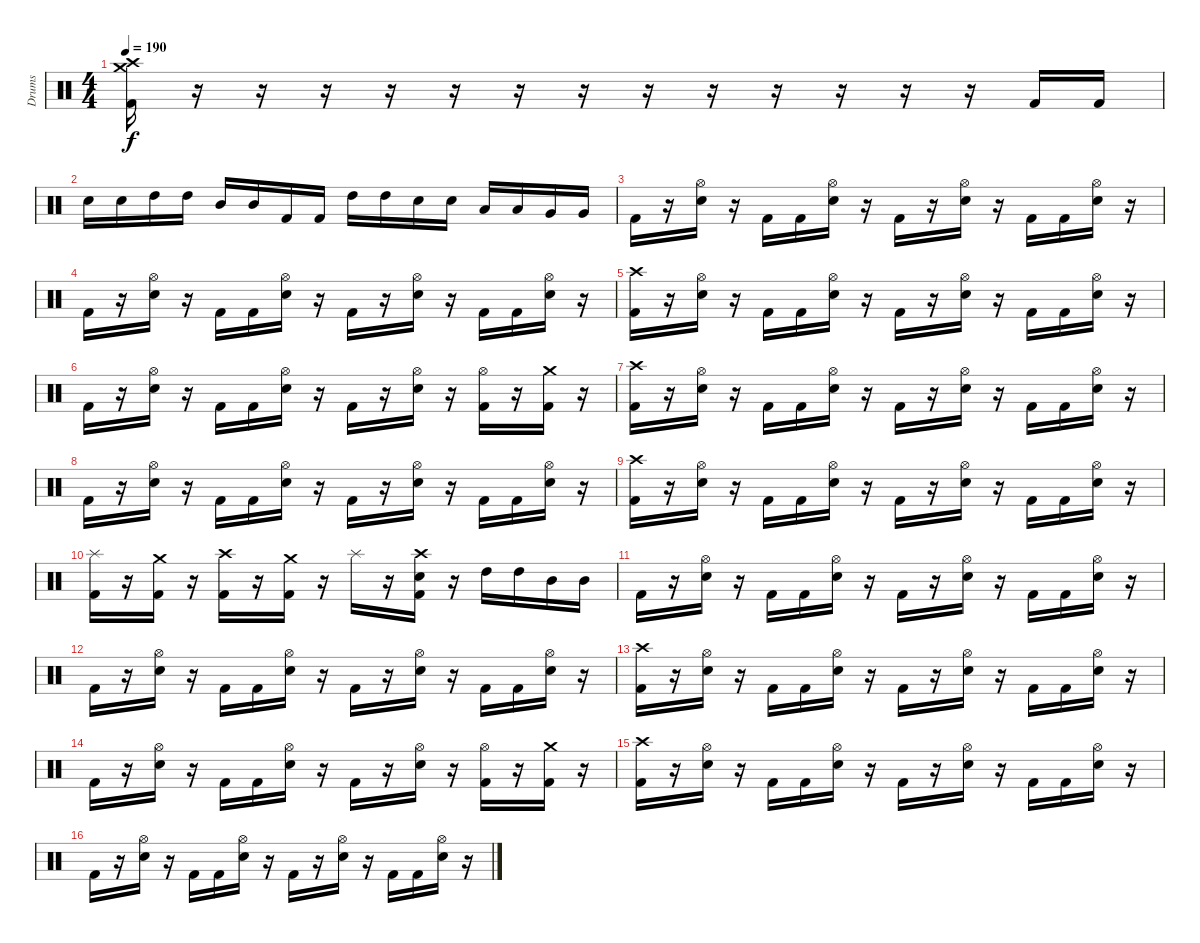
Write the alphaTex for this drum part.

\track ("Drums" "Drums") {instrument percussion}
\staff {score}
\articulation defaults
\ts (4 4)
\tempo 190
\clef neutral
\ks c
("Crash high (hit)" "Crash medium (hit)" "Kick (hit) 2").16{dy f} r.16 r.16 r.16 r.16 r.16 r.16 r.16 r.16 r.16 r.16 r.16 r.16 r.16 "Kick (hit) 2".16 "Kick (hit) 2".16 |
"Electric Snare (hit)".16 "Electric Snare (hit)".16 "High Tom (hit)".16 "High Tom (hit)".16 "Mid Tom (hit)".16 "Mid Tom (hit)".16 "Kick (hit) 2".16 "Kick (hit) 2".16 "High Tom (hit)".16 "High Tom (hit)".16 "Electric Snare (hit)".16 "Electric Snare (hit)".16 "Low Tom (hit)".16 "Low Tom (hit)".16 "Very Low Tom (hit)".16 "Very Low Tom (hit)".16 |
"Kick (hit) 2".16 r.16 ("Hi-Hat (open)" "Electric Snare (hit)").16 r.16 "Kick (hit) 2".16 "Kick (hit) 2".16 ("Hi-Hat (open)" "Electric Snare (hit)").16 r.16 "Kick (hit) 2".16 r.16 ("Hi-Hat (open)" "Electric Snare (hit)").16 r.16 "Kick (hit) 2".16 "Kick (hit) 2".16 ("Hi-Hat (open)" "Electric Snare (hit)").16 r.16 |
"Kick (hit) 2".16 r.16 ("Hi-Hat (open)" "Electric Snare (hit)").16 r.16 "Kick (hit) 2".16 "Kick (hit) 2".16 ("Hi-Hat (open)" "Electric Snare (hit)").16 r.16 "Kick (hit) 2".16 r.16 ("Hi-Hat (open)" "Electric Snare (hit)").16 r.16 "Kick (hit) 2".16 "Kick (hit) 2".16 ("Hi-Hat (open)" "Electric Snare (hit)").16 r.16 |
("Crash high (hit)" "Kick (hit) 2").16 r.16 ("Hi-Hat (open)" "Electric Snare (hit)").16 r.16 "Kick (hit) 2".16 "Kick (hit) 2".16 ("Hi-Hat (open)" "Electric Snare (hit)").16 r.16 "Kick (hit) 2".16 r.16 ("Hi-Hat (open)" "Electric Snare (hit)").16 r.16 "Kick (hit) 2".16 "Kick (hit) 2".16 ("Hi-Hat (open)" "Electric Snare (hit)").16 r.16 |
"Kick (hit) 2".16 r.16 ("Hi-Hat (open)" "Electric Snare (hit)").16 r.16 "Kick (hit) 2".16 "Kick (hit) 2".16 ("Hi-Hat (open)" "Electric Snare (hit)").16 r.16 "Kick (hit) 2".16 r.16 ("Hi-Hat (open)" "Electric Snare (hit)").16 r.16 ("Hi-Hat (open)" "Kick (hit) 2").16 r.16 ("Crash medium (hit)" "Kick (hit) 2").16 r.16 |
("Crash high (hit)" "Kick (hit) 2").16 r.16 ("Hi-Hat (open)" "Electric Snare (hit)").16 r.16 "Kick (hit) 2".16 "Kick (hit) 2".16 ("Hi-Hat (open)" "Electric Snare (hit)").16 r.16 "Kick (hit) 2".16 r.16 ("Hi-Hat (open)" "Electric Snare (hit)").16 r.16 "Kick (hit) 2".16 "Kick (hit) 2".16 ("Hi-Hat (open)" "Electric Snare (hit)").16 r.16 |
"Kick (hit) 2".16 r.16 ("Hi-Hat (open)" "Electric Snare (hit)").16 r.16 "Kick (hit) 2".16 "Kick (hit) 2".16 ("Hi-Hat (open)" "Electric Snare (hit)").16 r.16 "Kick (hit) 2".16 r.16 ("Hi-Hat (open)" "Electric Snare (hit)").16 r.16 "Kick (hit) 2".16 "Kick (hit) 2".16 ("Hi-Hat (open)" "Electric Snare (hit)").16 r.16 |
("Crash high (hit)" "Kick (hit) 2").16 r.16 ("Hi-Hat (open)" "Electric Snare (hit)").16 r.16 "Kick (hit) 2".16 "Kick (hit) 2".16 ("Hi-Hat (open)" "Electric Snare (hit)").16 r.16 "Kick (hit) 2".16 r.16 ("Hi-Hat (open)" "Electric Snare (hit)").16 r.16 "Kick (hit) 2".16 "Kick (hit) 2".16 ("Hi-Hat (open)" "Electric Snare (hit)").16 r.16 |
("Splash (hit)" "Kick (hit) 2").16 r.16 ("Crash medium (hit)" "Kick (hit) 2").16 r.16 ("Crash high (hit)" "Kick (hit) 2").16 r.16 ("Crash medium (hit)" "Kick (hit) 2").16 r.16 "Splash (hit)".16 r.16 ("Crash high (hit)" "Electric Snare (hit)" "Kick (hit) 2").16 r.16 "High Tom (hit)".16 "High Tom (hit)".16 "Mid Tom (hit)".16 "Mid Tom (hit)".16 |
"Kick (hit) 2".16 r.16 ("Hi-Hat (open)" "Electric Snare (hit)").16 r.16 "Kick (hit) 2".16 "Kick (hit) 2".16 ("Hi-Hat (open)" "Electric Snare (hit)").16 r.16 "Kick (hit) 2".16 r.16 ("Hi-Hat (open)" "Electric Snare (hit)").16 r.16 "Kick (hit) 2".16 "Kick (hit) 2".16 ("Hi-Hat (open)" "Electric Snare (hit)").16 r.16 |
"Kick (hit) 2".16 r.16 ("Hi-Hat (open)" "Electric Snare (hit)").16 r.16 "Kick (hit) 2".16 "Kick (hit) 2".16 ("Hi-Hat (open)" "Electric Snare (hit)").16 r.16 "Kick (hit) 2".16 r.16 ("Hi-Hat (open)" "Electric Snare (hit)").16 r.16 "Kick (hit) 2".16 "Kick (hit) 2".16 ("Hi-Hat (open)" "Electric Snare (hit)").16 r.16 |
("Crash high (hit)" "Kick (hit) 2").16 r.16 ("Hi-Hat (open)" "Electric Snare (hit)").16 r.16 "Kick (hit) 2".16 "Kick (hit) 2".16 ("Hi-Hat (open)" "Electric Snare (hit)").16 r.16 "Kick (hit) 2".16 r.16 ("Hi-Hat (open)" "Electric Snare (hit)").16 r.16 "Kick (hit) 2".16 "Kick (hit) 2".16 ("Hi-Hat (open)" "Electric Snare (hit)").16 r.16 |
"Kick (hit) 2".16 r.16 ("Hi-Hat (open)" "Electric Snare (hit)").16 r.16 "Kick (hit) 2".16 "Kick (hit) 2".16 ("Hi-Hat (open)" "Electric Snare (hit)").16 r.16 "Kick (hit) 2".16 r.16 ("Hi-Hat (open)" "Electric Snare (hit)").16 r.16 ("Hi-Hat (open)" "Kick (hit) 2").16 r.16 ("Crash medium (hit)" "Kick (hit) 2").16 r.16 |
("Crash high (hit)" "Kick (hit) 2").16 r.16 ("Hi-Hat (open)" "Electric Snare (hit)").16 r.16 "Kick (hit) 2".16 "Kick (hit) 2".16 ("Hi-Hat (open)" "Electric Snare (hit)").16 r.16 "Kick (hit) 2".16 r.16 ("Hi-Hat (open)" "Electric Snare (hit)").16 r.16 "Kick (hit) 2".16 "Kick (hit) 2".16 ("Hi-Hat (open)" "Electric Snare (hit)").16 r.16 |
"Kick (hit) 2".16 r.16 ("Hi-Hat (open)" "Electric Snare (hit)").16 r.16 "Kick (hit) 2".16 "Kick (hit) 2".16 ("Hi-Hat (open)" "Electric Snare (hit)").16 r.16 "Kick (hit) 2".16 r.16 ("Hi-Hat (open)" "Electric Snare (hit)").16 r.16 "Kick (hit) 2".16 "Kick (hit) 2".16 ("Hi-Hat (open)" "Electric Snare (hit)").16 r.16
